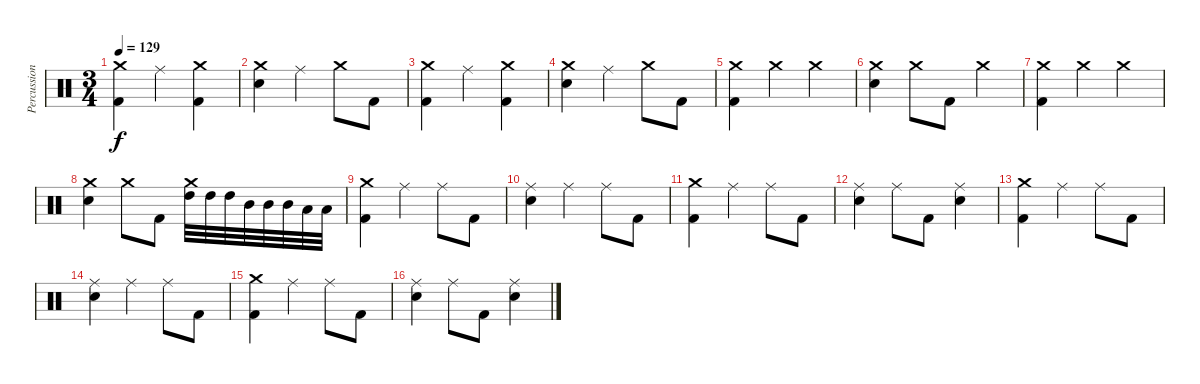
\track ("Percussion" "Percussion") {instrument percussion}
\staff {score}
\articulation defaults
\ts (3 4)
\tempo 129
\clef neutral
\ks c
("Crash medium (hit)" "Kick (hit) 2").4{dy f} "Ride (middle)".4 ("Crash medium (hit)" "Kick (hit) 2").4 |
("Crash medium (hit)" "Electric Snare (hit)").4 "Ride (middle)".4 "Crash medium (hit)".8 "Kick (hit) 2".8 |
("Crash medium (hit)" "Kick (hit) 2").4 "Ride (middle)".4 ("Crash medium (hit)" "Kick (hit) 2").4 |
("Crash medium (hit)" "Electric Snare (hit)").4 "Ride (middle)".4 "Crash medium (hit)".8 "Kick (hit) 2".8 |
("Crash medium (hit)" "Kick (hit) 2").4 "Crash medium (hit)".4 "Crash medium (hit)".4 |
("Crash medium (hit)" "Electric Snare (hit)").4 "Crash medium (hit)".8 "Kick (hit) 2".8 "Crash medium (hit)".4 |
("Crash medium (hit)" "Kick (hit) 2").4 "Crash medium (hit)".4 "Crash medium (hit)".4 |
("Crash medium (hit)" "Electric Snare (hit)").4 "Crash medium (hit)".8 "Kick (hit) 2".8 ("Crash medium (hit)" "High Tom (hit)").32 "High Tom (hit)".32 "High Tom (hit)".32 "Mid Tom (hit)".32 "Mid Tom (hit)".32 "Mid Tom (hit)".32 "Low Tom (hit)".32 "Low Tom (hit)".32 |
("Crash medium (hit)" "Kick (hit) 2").4 "Ride (middle)".4 "Ride (middle)".8 "Kick (hit) 2".8 |
("Ride (middle)" "Electric Snare (hit)").4 "Ride (middle)".4 "Ride (middle)".8 "Kick (hit) 2".8 |
("Crash medium (hit)" "Kick (hit) 2").4 "Ride (middle)".4 "Ride (middle)".8 "Kick (hit) 2".8 |
("Ride (middle)" "Electric Snare (hit)").4 "Ride (middle)".8 "Kick (hit) 2".8 ("Ride (middle)" "Electric Snare (hit)").4 |
("Crash medium (hit)" "Kick (hit) 2").4 "Ride (middle)".4 "Ride (middle)".8 "Kick (hit) 2".8 |
("Ride (middle)" "Electric Snare (hit)").4 "Ride (middle)".4 "Ride (middle)".8 "Kick (hit) 2".8 |
("Crash medium (hit)" "Kick (hit) 2").4 "Ride (middle)".4 "Ride (middle)".8 "Kick (hit) 2".8 |
("Ride (middle)" "Electric Snare (hit)").4 "Ride (middle)".8 "Kick (hit) 2".8 ("Ride (middle)" "Electric Snare (hit)").4
